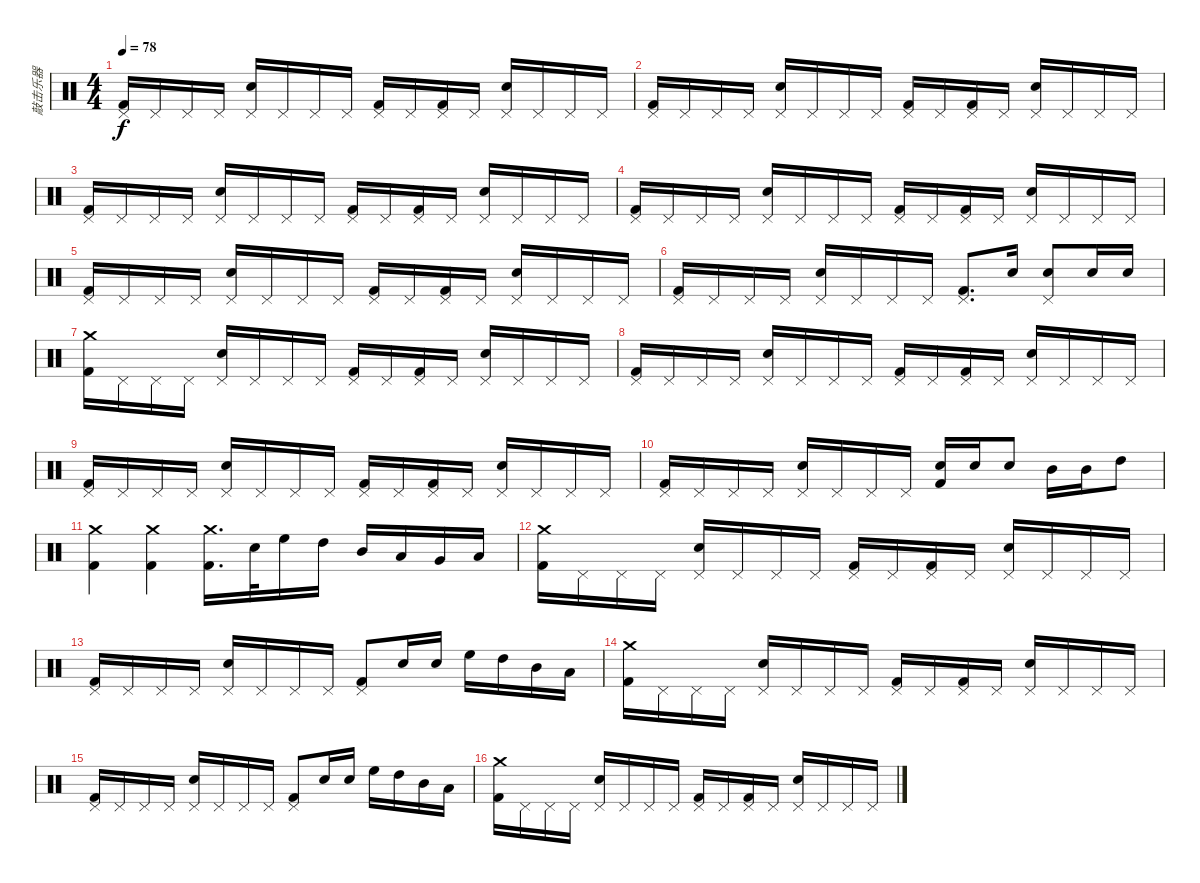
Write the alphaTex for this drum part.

\track ("敲击乐器" "敲击乐器") {instrument percussion}
\staff {score}
\articulation defaults
\ts (4 4)
\tempo 78
\clef neutral
\ks c
("Pedal Hi-Hat (hit)" "Kick (hit) 2").16{dy f} "Pedal Hi-Hat (hit)".16 "Pedal Hi-Hat (hit)".16 "Pedal Hi-Hat (hit)".16 ("Pedal Hi-Hat (hit)" "Snare (hit) 2").16 "Pedal Hi-Hat (hit)".16 "Pedal Hi-Hat (hit)".16 "Pedal Hi-Hat (hit)".16 ("Pedal Hi-Hat (hit)" "Kick (hit) 2").16 "Pedal Hi-Hat (hit)".16 ("Pedal Hi-Hat (hit)" "Kick (hit) 2").16 "Pedal Hi-Hat (hit)".16 ("Pedal Hi-Hat (hit)" "Snare (hit) 2").16 "Pedal Hi-Hat (hit)".16 "Pedal Hi-Hat (hit)".16 "Pedal Hi-Hat (hit)".16 |
("Pedal Hi-Hat (hit)" "Kick (hit) 2").16 "Pedal Hi-Hat (hit)".16 "Pedal Hi-Hat (hit)".16 "Pedal Hi-Hat (hit)".16 ("Pedal Hi-Hat (hit)" "Snare (hit) 2").16 "Pedal Hi-Hat (hit)".16 "Pedal Hi-Hat (hit)".16 "Pedal Hi-Hat (hit)".16 ("Pedal Hi-Hat (hit)" "Kick (hit) 2").16 "Pedal Hi-Hat (hit)".16 ("Pedal Hi-Hat (hit)" "Kick (hit) 2").16 "Pedal Hi-Hat (hit)".16 ("Pedal Hi-Hat (hit)" "Snare (hit) 2").16 "Pedal Hi-Hat (hit)".16 "Pedal Hi-Hat (hit)".16 "Pedal Hi-Hat (hit)".16 |
("Pedal Hi-Hat (hit)" "Kick (hit) 2").16 "Pedal Hi-Hat (hit)".16 "Pedal Hi-Hat (hit)".16 "Pedal Hi-Hat (hit)".16 ("Pedal Hi-Hat (hit)" "Snare (hit) 2").16 "Pedal Hi-Hat (hit)".16 "Pedal Hi-Hat (hit)".16 "Pedal Hi-Hat (hit)".16 ("Pedal Hi-Hat (hit)" "Kick (hit) 2").16 "Pedal Hi-Hat (hit)".16 ("Pedal Hi-Hat (hit)" "Kick (hit) 2").16 "Pedal Hi-Hat (hit)".16 ("Pedal Hi-Hat (hit)" "Snare (hit) 2").16 "Pedal Hi-Hat (hit)".16 "Pedal Hi-Hat (hit)".16 "Pedal Hi-Hat (hit)".16 |
("Pedal Hi-Hat (hit)" "Kick (hit) 2").16 "Pedal Hi-Hat (hit)".16 "Pedal Hi-Hat (hit)".16 "Pedal Hi-Hat (hit)".16 ("Pedal Hi-Hat (hit)" "Snare (hit) 2").16 "Pedal Hi-Hat (hit)".16 "Pedal Hi-Hat (hit)".16 "Pedal Hi-Hat (hit)".16 ("Pedal Hi-Hat (hit)" "Kick (hit) 2").16 "Pedal Hi-Hat (hit)".16 ("Pedal Hi-Hat (hit)" "Kick (hit) 2").16 "Pedal Hi-Hat (hit)".16 ("Pedal Hi-Hat (hit)" "Snare (hit) 2").16 "Pedal Hi-Hat (hit)".16 "Pedal Hi-Hat (hit)".16 "Pedal Hi-Hat (hit)".16 |
("Pedal Hi-Hat (hit)" "Kick (hit) 2").16 "Pedal Hi-Hat (hit)".16 "Pedal Hi-Hat (hit)".16 "Pedal Hi-Hat (hit)".16 ("Pedal Hi-Hat (hit)" "Snare (hit) 2").16 "Pedal Hi-Hat (hit)".16 "Pedal Hi-Hat (hit)".16 "Pedal Hi-Hat (hit)".16 ("Pedal Hi-Hat (hit)" "Kick (hit) 2").16 "Pedal Hi-Hat (hit)".16 ("Pedal Hi-Hat (hit)" "Kick (hit) 2").16 "Pedal Hi-Hat (hit)".16 ("Pedal Hi-Hat (hit)" "Snare (hit) 2").16 "Pedal Hi-Hat (hit)".16 "Pedal Hi-Hat (hit)".16 "Pedal Hi-Hat (hit)".16 |
("Pedal Hi-Hat (hit)" "Kick (hit) 2").16 "Pedal Hi-Hat (hit)".16 "Pedal Hi-Hat (hit)".16 "Pedal Hi-Hat (hit)".16 ("Pedal Hi-Hat (hit)" "Snare (hit) 2").16 "Pedal Hi-Hat (hit)".16 "Pedal Hi-Hat (hit)".16 "Pedal Hi-Hat (hit)".16 ("Pedal Hi-Hat (hit)" "Kick (hit) 2").8{d} "Snare (hit) 2".16 ("Pedal Hi-Hat (hit)" "Snare (hit) 2").8 "Snare (hit) 2".16 "Snare (hit) 2".16 |
("Crash medium (hit)" "Kick (hit) 2").16 "Pedal Hi-Hat (hit)".16 "Pedal Hi-Hat (hit)".16 "Pedal Hi-Hat (hit)".16 ("Pedal Hi-Hat (hit)" "Snare (hit) 2").16 "Pedal Hi-Hat (hit)".16 "Pedal Hi-Hat (hit)".16 "Pedal Hi-Hat (hit)".16 ("Pedal Hi-Hat (hit)" "Kick (hit) 2").16 "Pedal Hi-Hat (hit)".16 ("Pedal Hi-Hat (hit)" "Kick (hit) 2").16 "Pedal Hi-Hat (hit)".16 ("Pedal Hi-Hat (hit)" "Snare (hit) 2").16 "Pedal Hi-Hat (hit)".16 "Pedal Hi-Hat (hit)".16 "Pedal Hi-Hat (hit)".16 |
("Pedal Hi-Hat (hit)" "Kick (hit) 2").16 "Pedal Hi-Hat (hit)".16 "Pedal Hi-Hat (hit)".16 "Pedal Hi-Hat (hit)".16 ("Pedal Hi-Hat (hit)" "Snare (hit) 2").16 "Pedal Hi-Hat (hit)".16 "Pedal Hi-Hat (hit)".16 "Pedal Hi-Hat (hit)".16 ("Pedal Hi-Hat (hit)" "Kick (hit) 2").16 "Pedal Hi-Hat (hit)".16 ("Pedal Hi-Hat (hit)" "Kick (hit) 2").16 "Pedal Hi-Hat (hit)".16 ("Pedal Hi-Hat (hit)" "Snare (hit) 2").16 "Pedal Hi-Hat (hit)".16 "Pedal Hi-Hat (hit)".16 "Pedal Hi-Hat (hit)".16 |
("Pedal Hi-Hat (hit)" "Kick (hit) 2").16 "Pedal Hi-Hat (hit)".16 "Pedal Hi-Hat (hit)".16 "Pedal Hi-Hat (hit)".16 ("Pedal Hi-Hat (hit)" "Snare (hit) 2").16 "Pedal Hi-Hat (hit)".16 "Pedal Hi-Hat (hit)".16 "Pedal Hi-Hat (hit)".16 ("Pedal Hi-Hat (hit)" "Kick (hit) 2").16 "Pedal Hi-Hat (hit)".16 ("Pedal Hi-Hat (hit)" "Kick (hit) 2").16 "Pedal Hi-Hat (hit)".16 ("Pedal Hi-Hat (hit)" "Snare (hit) 2").16 "Pedal Hi-Hat (hit)".16 "Pedal Hi-Hat (hit)".16 "Pedal Hi-Hat (hit)".16 |
("Pedal Hi-Hat (hit)" "Kick (hit) 2").16 "Pedal Hi-Hat (hit)".16 "Pedal Hi-Hat (hit)".16 "Pedal Hi-Hat (hit)".16 ("Pedal Hi-Hat (hit)" "Snare (hit) 2").16 "Pedal Hi-Hat (hit)".16 "Pedal Hi-Hat (hit)".16 "Pedal Hi-Hat (hit)".16 ("Snare (hit) 2" "Kick (hit) 2").16 "Snare (hit) 2".16 "Snare (hit) 2".8 "Mid Tom (hit)".16 "Mid Tom (hit)".16 "High Tom (hit)".8 |
("Crash medium (hit)" "Kick (hit) 2").4 ("Crash medium (hit)" "Kick (hit) 2").4 ("Crash medium (hit)" "Kick (hit) 2").16{d} "Snare (hit) 2".32 "High Floor Tom (hit)".16 "High Tom (hit)".16 "Mid Tom (hit)".16 "Low Tom (hit)".16 "Very Low Tom (hit)".16 "Low Floor Tom (hit)".16 |
("Crash medium (hit)" "Kick (hit) 2").16 "Pedal Hi-Hat (hit)".16 "Pedal Hi-Hat (hit)".16 "Pedal Hi-Hat (hit)".16 ("Pedal Hi-Hat (hit)" "Snare (hit) 2").16 "Pedal Hi-Hat (hit)".16 "Pedal Hi-Hat (hit)".16 "Pedal Hi-Hat (hit)".16 ("Pedal Hi-Hat (hit)" "Kick (hit) 2").16 "Pedal Hi-Hat (hit)".16 ("Pedal Hi-Hat (hit)" "Kick (hit) 2").16 "Pedal Hi-Hat (hit)".16 ("Pedal Hi-Hat (hit)" "Snare (hit) 2").16 "Pedal Hi-Hat (hit)".16 "Pedal Hi-Hat (hit)".16 "Pedal Hi-Hat (hit)".16 |
("Pedal Hi-Hat (hit)" "Kick (hit) 2").16 "Pedal Hi-Hat (hit)".16 "Pedal Hi-Hat (hit)".16 "Pedal Hi-Hat (hit)".16 ("Pedal Hi-Hat (hit)" "Snare (hit) 2").16 "Pedal Hi-Hat (hit)".16 "Pedal Hi-Hat (hit)".16 "Pedal Hi-Hat (hit)".16 ("Pedal Hi-Hat (hit)" "Kick (hit) 2").8 "Snare (hit) 2".16 "Snare (hit) 2".16 "High Floor Tom (hit)".16 "High Tom (hit)".16 "Mid Tom (hit)".16 "Low Tom (hit)".16 |
("Crash medium (hit)" "Kick (hit) 2").16 "Pedal Hi-Hat (hit)".16 "Pedal Hi-Hat (hit)".16 "Pedal Hi-Hat (hit)".16 ("Pedal Hi-Hat (hit)" "Snare (hit) 2").16 "Pedal Hi-Hat (hit)".16 "Pedal Hi-Hat (hit)".16 "Pedal Hi-Hat (hit)".16 ("Pedal Hi-Hat (hit)" "Kick (hit) 2").16 "Pedal Hi-Hat (hit)".16 ("Pedal Hi-Hat (hit)" "Kick (hit) 2").16 "Pedal Hi-Hat (hit)".16 ("Pedal Hi-Hat (hit)" "Snare (hit) 2").16 "Pedal Hi-Hat (hit)".16 "Pedal Hi-Hat (hit)".16 "Pedal Hi-Hat (hit)".16 |
("Pedal Hi-Hat (hit)" "Kick (hit) 2").16 "Pedal Hi-Hat (hit)".16 "Pedal Hi-Hat (hit)".16 "Pedal Hi-Hat (hit)".16 ("Pedal Hi-Hat (hit)" "Snare (hit) 2").16 "Pedal Hi-Hat (hit)".16 "Pedal Hi-Hat (hit)".16 "Pedal Hi-Hat (hit)".16 ("Pedal Hi-Hat (hit)" "Kick (hit) 2").8 "Snare (hit) 2".16 "Snare (hit) 2".16 "High Floor Tom (hit)".16 "High Tom (hit)".16 "Mid Tom (hit)".16 "Low Tom (hit)".16 |
("Crash medium (hit)" "Kick (hit) 2").16 "Pedal Hi-Hat (hit)".16 "Pedal Hi-Hat (hit)".16 "Pedal Hi-Hat (hit)".16 ("Pedal Hi-Hat (hit)" "Snare (hit) 2").16 "Pedal Hi-Hat (hit)".16 "Pedal Hi-Hat (hit)".16 "Pedal Hi-Hat (hit)".16 ("Pedal Hi-Hat (hit)" "Kick (hit) 2").16 "Pedal Hi-Hat (hit)".16 ("Pedal Hi-Hat (hit)" "Kick (hit) 2").16 "Pedal Hi-Hat (hit)".16 ("Pedal Hi-Hat (hit)" "Snare (hit) 2").16 "Pedal Hi-Hat (hit)".16 "Pedal Hi-Hat (hit)".16 "Pedal Hi-Hat (hit)".16
